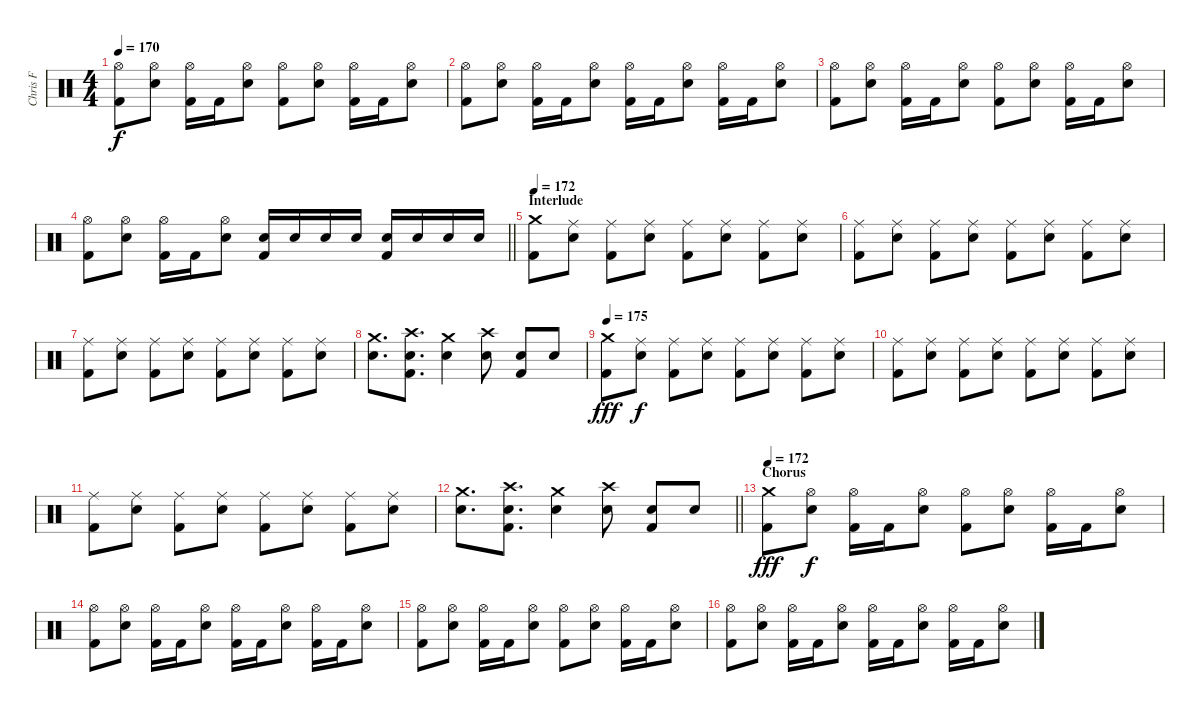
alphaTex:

\track ("Chris F" "Chris F") {instrument percussion}
\staff {score}
\articulation defaults
\ts (4 4)
\tempo 170
\clef neutral
\ks c
("Hi-Hat (open)" "Kick (hit) 2").8{dy f} ("Hi-Hat (open)" "Electric Snare (hit)").8 ("Hi-Hat (open)" "Kick (hit) 2").16 "Kick (hit) 2".16 ("Hi-Hat (open)" "Electric Snare (hit)").8 ("Hi-Hat (open)" "Kick (hit) 2").8 ("Hi-Hat (open)" "Electric Snare (hit)").8 ("Hi-Hat (open)" "Kick (hit) 2").16 "Kick (hit) 2".16 ("Hi-Hat (open)" "Electric Snare (hit)").8 |
("Hi-Hat (open)" "Kick (hit) 2").8 ("Hi-Hat (open)" "Electric Snare (hit)").8 ("Hi-Hat (open)" "Kick (hit) 2").16 "Kick (hit) 2".16 ("Hi-Hat (open)" "Electric Snare (hit)").8 ("Hi-Hat (open)" "Kick (hit) 2").16 "Kick (hit) 2".16 ("Hi-Hat (open)" "Electric Snare (hit)").8 ("Hi-Hat (open)" "Kick (hit) 2").16 "Kick (hit) 2".16 ("Hi-Hat (open)" "Electric Snare (hit)").8 |
("Hi-Hat (open)" "Kick (hit) 2").8 ("Hi-Hat (open)" "Electric Snare (hit)").8 ("Hi-Hat (open)" "Kick (hit) 2").16 "Kick (hit) 2".16 ("Hi-Hat (open)" "Electric Snare (hit)").8 ("Hi-Hat (open)" "Kick (hit) 2").8 ("Hi-Hat (open)" "Electric Snare (hit)").8 ("Hi-Hat (open)" "Kick (hit) 2").16 "Kick (hit) 2".16 ("Hi-Hat (open)" "Electric Snare (hit)").8 |
\barLineRight lightlight
("Hi-Hat (open)" "Kick (hit) 2").8 ("Hi-Hat (open)" "Electric Snare (hit)").8 ("Hi-Hat (open)" "Kick (hit) 2").16 "Kick (hit) 2".16 ("Hi-Hat (open)" "Electric Snare (hit)").8 ("Electric Snare (hit)" "Kick (hit) 2").16 "Electric Snare (hit)".16 "Electric Snare (hit)".16 "Electric Snare (hit)".16 ("Electric Snare (hit)" "Kick (hit) 2").16 "Electric Snare (hit)".16 "Electric Snare (hit)".16 "Electric Snare (hit)".16 |
\section ("" "Interlude")
\tempo 172
("Crash medium (hit)" "Kick (hit) 2").8 ("Ride (middle)" "Electric Snare (hit)").8 ("Ride (middle)" "Kick (hit) 2").8 ("Ride (middle)" "Electric Snare (hit)").8 ("Ride (middle)" "Kick (hit) 2").8 ("Ride (middle)" "Electric Snare (hit)").8 ("Ride (middle)" "Kick (hit) 2").8 ("Ride (middle)" "Electric Snare (hit)").8 |
("Ride (middle)" "Kick (hit) 2").8 ("Ride (middle)" "Electric Snare (hit)").8 ("Ride (middle)" "Kick (hit) 2").8 ("Ride (middle)" "Electric Snare (hit)").8 ("Ride (middle)" "Kick (hit) 2").8 ("Ride (middle)" "Electric Snare (hit)").8 ("Ride (middle)" "Kick (hit) 2").8 ("Ride (middle)" "Electric Snare (hit)").8 |
("Ride (middle)" "Kick (hit) 2").8 ("Ride (middle)" "Electric Snare (hit)").8 ("Ride (middle)" "Kick (hit) 2").8 ("Ride (middle)" "Electric Snare (hit)").8 ("Ride (middle)" "Kick (hit) 2").8 ("Ride (middle)" "Electric Snare (hit)").8 ("Ride (middle)" "Kick (hit) 2").8 ("Ride (middle)" "Electric Snare (hit)").8 |
("Crash medium (hit)" "Electric Snare (hit)").8{d} ("Crash high (hit)" "Electric Snare (hit)" "Kick (hit) 2").8{d} ("Crash medium (hit)" "Electric Snare (hit)").4 ("Crash high (hit)" "Electric Snare (hit)").8 ("Electric Snare (hit)" "Kick (hit) 2").8 "Electric Snare (hit)".8 |
\tempo 175
("Crash medium (hit)" "Kick (hit) 2").8{dy fff} ("Ride (middle)" "Electric Snare (hit)").8{dy f} ("Ride (middle)" "Kick (hit) 2").8 ("Ride (middle)" "Electric Snare (hit)").8 ("Ride (middle)" "Kick (hit) 2").8 ("Ride (middle)" "Electric Snare (hit)").8 ("Ride (middle)" "Kick (hit) 2").8 ("Ride (middle)" "Electric Snare (hit)").8 |
("Ride (middle)" "Kick (hit) 2").8 ("Ride (middle)" "Electric Snare (hit)").8 ("Ride (middle)" "Kick (hit) 2").8 ("Ride (middle)" "Electric Snare (hit)").8 ("Ride (middle)" "Kick (hit) 2").8 ("Ride (middle)" "Electric Snare (hit)").8 ("Ride (middle)" "Kick (hit) 2").8 ("Ride (middle)" "Electric Snare (hit)").8 |
("Ride (middle)" "Kick (hit) 2").8 ("Ride (middle)" "Electric Snare (hit)").8 ("Ride (middle)" "Kick (hit) 2").8 ("Ride (middle)" "Electric Snare (hit)").8 ("Ride (middle)" "Kick (hit) 2").8 ("Ride (middle)" "Electric Snare (hit)").8 ("Ride (middle)" "Kick (hit) 2").8 ("Ride (middle)" "Electric Snare (hit)").8 |
\barLineRight lightlight
("Crash medium (hit)" "Electric Snare (hit)").8{d} ("Crash high (hit)" "Electric Snare (hit)" "Kick (hit) 2").8{d} ("Crash medium (hit)" "Electric Snare (hit)").4 ("Crash high (hit)" "Electric Snare (hit)").8 ("Electric Snare (hit)" "Kick (hit) 2").8 "Electric Snare (hit)".8 |
\section ("" "Chorus")
\tempo 172
("Crash medium (hit)" "Kick (hit) 2").8{dy fff} ("Hi-Hat (open)" "Electric Snare (hit)").8{dy f} ("Hi-Hat (open)" "Kick (hit) 2").16 "Kick (hit) 2".16 ("Hi-Hat (open)" "Electric Snare (hit)").8 ("Hi-Hat (open)" "Kick (hit) 2").8 ("Hi-Hat (open)" "Electric Snare (hit)").8 ("Hi-Hat (open)" "Kick (hit) 2").16 "Kick (hit) 2".16 ("Hi-Hat (open)" "Electric Snare (hit)").8 |
("Hi-Hat (open)" "Kick (hit) 2").8 ("Hi-Hat (open)" "Electric Snare (hit)").8 ("Hi-Hat (open)" "Kick (hit) 2").16 "Kick (hit) 2".16 ("Hi-Hat (open)" "Electric Snare (hit)").8 ("Hi-Hat (open)" "Kick (hit) 2").16 "Kick (hit) 2".16 ("Hi-Hat (open)" "Electric Snare (hit)").8 ("Hi-Hat (open)" "Kick (hit) 2").16 "Kick (hit) 2".16 ("Hi-Hat (open)" "Electric Snare (hit)").8 |
("Hi-Hat (open)" "Kick (hit) 2").8 ("Hi-Hat (open)" "Electric Snare (hit)").8 ("Hi-Hat (open)" "Kick (hit) 2").16 "Kick (hit) 2".16 ("Hi-Hat (open)" "Electric Snare (hit)").8 ("Hi-Hat (open)" "Kick (hit) 2").8 ("Hi-Hat (open)" "Electric Snare (hit)").8 ("Hi-Hat (open)" "Kick (hit) 2").16 "Kick (hit) 2".16 ("Hi-Hat (open)" "Electric Snare (hit)").8 |
("Hi-Hat (open)" "Kick (hit) 2").8 ("Hi-Hat (open)" "Electric Snare (hit)").8 ("Hi-Hat (open)" "Kick (hit) 2").16 "Kick (hit) 2".16 ("Hi-Hat (open)" "Electric Snare (hit)").8 ("Hi-Hat (open)" "Kick (hit) 2").16 "Kick (hit) 2".16 ("Hi-Hat (open)" "Electric Snare (hit)").8 ("Hi-Hat (open)" "Kick (hit) 2").16 "Kick (hit) 2".16 ("Hi-Hat (open)" "Electric Snare (hit)").8
